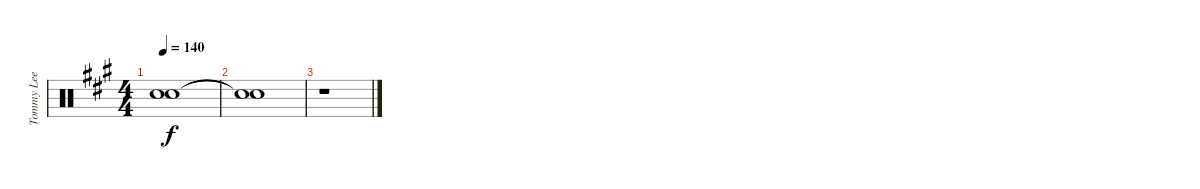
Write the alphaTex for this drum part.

\track ("Tommy Lee - Drums" "Tommy Lee ") {instrument percussion}
\staff {score}
\articulation defaults
\ts (4 4)
\tempo 140
\clef neutral
\ks a
("Snare (hit)"{t} "Snare (hit)"{t}).1{dy f} |
("Snare (hit)"{t} "Snare (hit)"{t}).1 |
r.1
